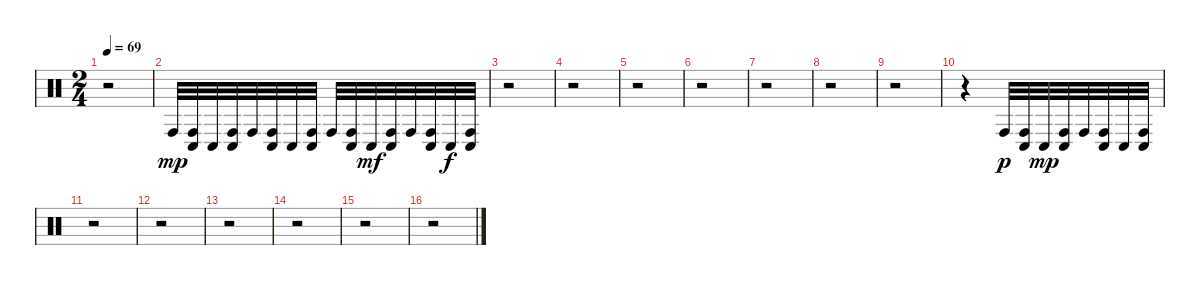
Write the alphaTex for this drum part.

\track "" {instrument percussion}
\staff {score}
\articulation defaults
\ts (2 4)
\tempo 69
\clef neutral
\ks c
r.2{dy mp} |
"Conga high (hit)".32 ("Conga low (hit)" "Conga high (hit)").32 "Conga low (hit)".32 ("Conga high (hit)" "Conga low (hit)").32 "Conga high (hit)".32 ("Conga low (hit)" "Conga high (hit)").32 "Conga low (hit)".32 ("Conga high (hit)" "Conga low (hit)").32 "Conga high (hit)".32 ("Conga low (hit)" "Conga high (hit)").32 "Conga low (hit)".32{dy mf} ("Conga high (hit)" "Conga low (hit)").32 "Conga high (hit)".32 ("Conga low (hit)" "Conga high (hit)").32 "Conga low (hit)".32{dy f} ("Conga high (hit)" "Conga low (hit)").32 |
r.2 |
r.2 |
r.2 |
r.2 |
r.2 |
r.2 |
r.2 |
r.4 "Conga high (hit)".32{dy p} ("Conga low (hit)" "Conga high (hit)").32 "Conga low (hit)".32{dy mp} ("Conga high (hit)" "Conga low (hit)").32 "Conga high (hit)".32 ("Conga low (hit)" "Conga high (hit)").32 "Conga low (hit)".32 ("Conga high (hit)" "Conga low (hit)").32 |
r.2 |
r.2 |
r.2 |
r.2 |
r.2 |
r.2
